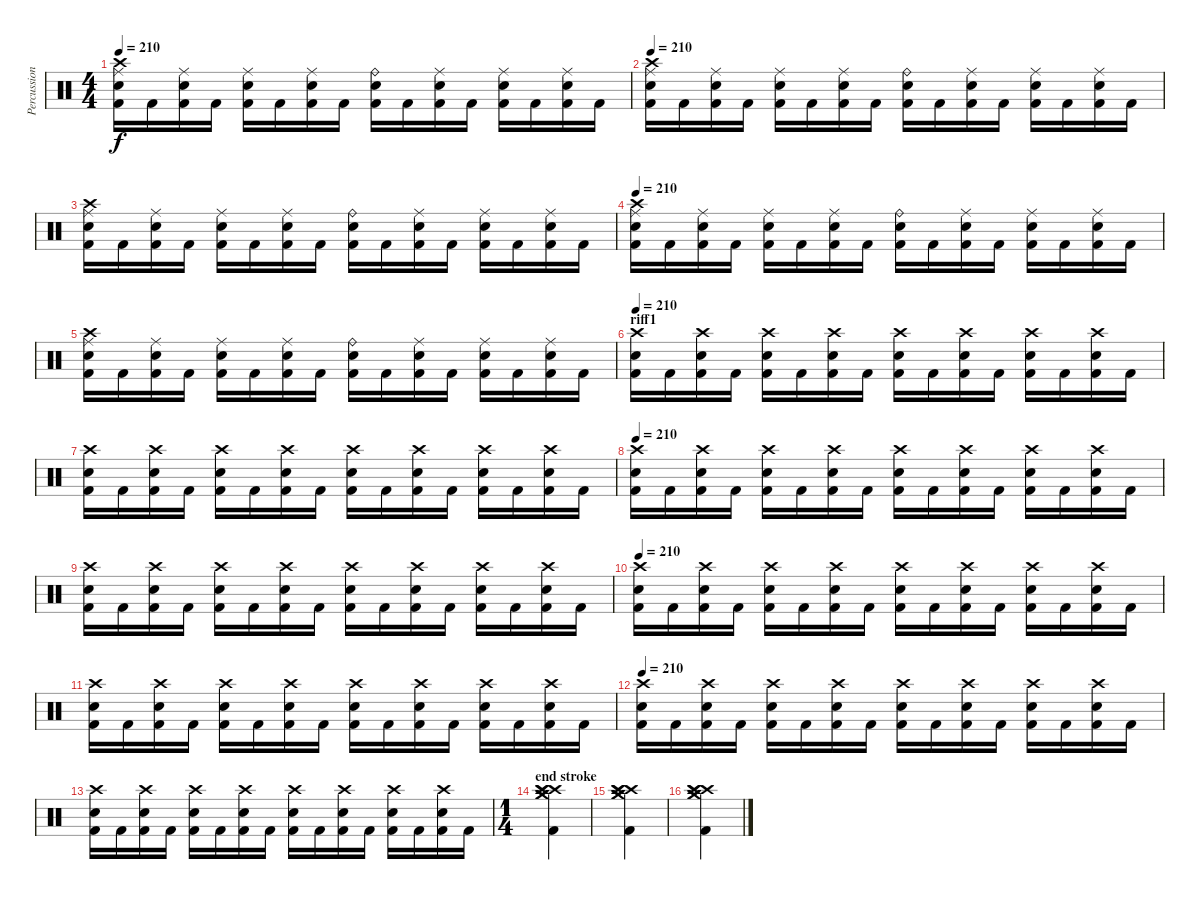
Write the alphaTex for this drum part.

\track ("Percussion" "Percussion") {instrument percussion}
\staff {score}
\articulation defaults
\ts (4 4)
\tempo 210
\clef neutral
\ks c
("Crash high (hit)" "Ride (middle)" "Snare (hit) 2" "Kick (hit) 2").16{dy f} "Kick (hit) 2".16 ("Ride (middle)" "Snare (hit) 2" "Kick (hit) 2").16 "Kick (hit) 2".16 ("Ride (middle)" "Snare (hit) 2" "Kick (hit) 2").16 "Kick (hit) 2".16 ("Ride (middle)" "Snare (hit) 2" "Kick (hit) 2").16 "Kick (hit) 2".16 ("Ride (bell)" "Snare (hit) 2" "Kick (hit) 2").16 "Kick (hit) 2".16 ("Ride (middle)" "Snare (hit) 2" "Kick (hit) 2").16 "Kick (hit) 2".16 ("Ride (middle)" "Snare (hit) 2" "Kick (hit) 2").16 "Kick (hit) 2".16 ("Ride (middle)" "Snare (hit) 2" "Kick (hit) 2").16 "Kick (hit) 2".16 |
\tempo 210
("Crash high (hit)" "Ride (middle)" "Snare (hit) 2" "Kick (hit) 2").16 "Kick (hit) 2".16 ("Ride (middle)" "Snare (hit) 2" "Kick (hit) 2").16 "Kick (hit) 2".16 ("Ride (middle)" "Snare (hit) 2" "Kick (hit) 2").16 "Kick (hit) 2".16 ("Ride (middle)" "Snare (hit) 2" "Kick (hit) 2").16 "Kick (hit) 2".16 ("Ride (bell)" "Snare (hit) 2" "Kick (hit) 2").16 "Kick (hit) 2".16 ("Ride (middle)" "Snare (hit) 2" "Kick (hit) 2").16 "Kick (hit) 2".16 ("Ride (middle)" "Snare (hit) 2" "Kick (hit) 2").16 "Kick (hit) 2".16 ("Ride (middle)" "Snare (hit) 2" "Kick (hit) 2").16 "Kick (hit) 2".16 |
("Crash high (hit)" "Ride (middle)" "Snare (hit) 2" "Kick (hit) 2").16 "Kick (hit) 2".16 ("Ride (middle)" "Snare (hit) 2" "Kick (hit) 2").16 "Kick (hit) 2".16 ("Ride (middle)" "Snare (hit) 2" "Kick (hit) 2").16 "Kick (hit) 2".16 ("Ride (middle)" "Snare (hit) 2" "Kick (hit) 2").16 "Kick (hit) 2".16 ("Ride (bell)" "Snare (hit) 2" "Kick (hit) 2").16 "Kick (hit) 2".16 ("Ride (middle)" "Snare (hit) 2" "Kick (hit) 2").16 "Kick (hit) 2".16 ("Ride (middle)" "Snare (hit) 2" "Kick (hit) 2").16 "Kick (hit) 2".16 ("Ride (middle)" "Snare (hit) 2" "Kick (hit) 2").16 "Kick (hit) 2".16 |
\tempo 210
("Crash high (hit)" "Ride (middle)" "Snare (hit) 2" "Kick (hit) 2").16 "Kick (hit) 2".16 ("Ride (middle)" "Snare (hit) 2" "Kick (hit) 2").16 "Kick (hit) 2".16 ("Ride (middle)" "Snare (hit) 2" "Kick (hit) 2").16 "Kick (hit) 2".16 ("Ride (middle)" "Snare (hit) 2" "Kick (hit) 2").16 "Kick (hit) 2".16 ("Ride (bell)" "Snare (hit) 2" "Kick (hit) 2").16 "Kick (hit) 2".16 ("Ride (middle)" "Snare (hit) 2" "Kick (hit) 2").16 "Kick (hit) 2".16 ("Ride (middle)" "Snare (hit) 2" "Kick (hit) 2").16 "Kick (hit) 2".16 ("Ride (middle)" "Snare (hit) 2" "Kick (hit) 2").16 "Kick (hit) 2".16 |
("Crash high (hit)" "Ride (middle)" "Snare (hit) 2" "Kick (hit) 2").16 "Kick (hit) 2".16 ("Ride (middle)" "Snare (hit) 2" "Kick (hit) 2").16 "Kick (hit) 2".16 ("Ride (middle)" "Snare (hit) 2" "Kick (hit) 2").16 "Kick (hit) 2".16 ("Ride (middle)" "Snare (hit) 2" "Kick (hit) 2").16 "Kick (hit) 2".16 ("Ride (bell)" "Snare (hit) 2" "Kick (hit) 2").16 "Kick (hit) 2".16 ("Ride (middle)" "Snare (hit) 2" "Kick (hit) 2").16 "Kick (hit) 2".16 ("Ride (middle)" "Snare (hit) 2" "Kick (hit) 2").16 "Kick (hit) 2".16 ("Ride (middle)" "Snare (hit) 2" "Kick (hit) 2").16 "Kick (hit) 2".16 |
\section ("" "riff1")
\tempo 210
("Crash high (hit)" "Snare (hit) 2" "Kick (hit) 2").16 "Kick (hit) 2".16 ("Crash high (hit)" "Snare (hit) 2" "Kick (hit) 2").16 "Kick (hit) 2".16 ("Crash high (hit)" "Snare (hit) 2" "Kick (hit) 2").16 "Kick (hit) 2".16 ("Crash high (hit)" "Snare (hit) 2" "Kick (hit) 2").16 "Kick (hit) 2".16 ("Crash high (hit)" "Snare (hit) 2" "Kick (hit) 2").16 "Kick (hit) 2".16 ("Crash high (hit)" "Snare (hit) 2" "Kick (hit) 2").16 "Kick (hit) 2".16 ("Crash high (hit)" "Snare (hit) 2" "Kick (hit) 2").16 "Kick (hit) 2".16 ("Crash high (hit)" "Snare (hit) 2" "Kick (hit) 2").16 "Kick (hit) 2".16 |
("Crash high (hit)" "Snare (hit) 2" "Kick (hit) 2").16 "Kick (hit) 2".16 ("Crash high (hit)" "Snare (hit) 2" "Kick (hit) 2").16 "Kick (hit) 2".16 ("Crash high (hit)" "Snare (hit) 2" "Kick (hit) 2").16 "Kick (hit) 2".16 ("Crash high (hit)" "Snare (hit) 2" "Kick (hit) 2").16 "Kick (hit) 2".16 ("Crash high (hit)" "Snare (hit) 2" "Kick (hit) 2").16 "Kick (hit) 2".16 ("Crash high (hit)" "Snare (hit) 2" "Kick (hit) 2").16 "Kick (hit) 2".16 ("Crash high (hit)" "Snare (hit) 2" "Kick (hit) 2").16 "Kick (hit) 2".16 ("Crash high (hit)" "Snare (hit) 2" "Kick (hit) 2").16 "Kick (hit) 2".16 |
\tempo 210
("Crash high (hit)" "Snare (hit) 2" "Kick (hit) 2").16 "Kick (hit) 2".16 ("Crash high (hit)" "Snare (hit) 2" "Kick (hit) 2").16 "Kick (hit) 2".16 ("Crash high (hit)" "Snare (hit) 2" "Kick (hit) 2").16 "Kick (hit) 2".16 ("Crash high (hit)" "Snare (hit) 2" "Kick (hit) 2").16 "Kick (hit) 2".16 ("Crash high (hit)" "Snare (hit) 2" "Kick (hit) 2").16 "Kick (hit) 2".16 ("Crash high (hit)" "Snare (hit) 2" "Kick (hit) 2").16 "Kick (hit) 2".16 ("Crash high (hit)" "Snare (hit) 2" "Kick (hit) 2").16 "Kick (hit) 2".16 ("Crash high (hit)" "Snare (hit) 2" "Kick (hit) 2").16 "Kick (hit) 2".16 |
("Crash high (hit)" "Snare (hit) 2" "Kick (hit) 2").16 "Kick (hit) 2".16 ("Crash high (hit)" "Snare (hit) 2" "Kick (hit) 2").16 "Kick (hit) 2".16 ("Crash high (hit)" "Snare (hit) 2" "Kick (hit) 2").16 "Kick (hit) 2".16 ("Crash high (hit)" "Snare (hit) 2" "Kick (hit) 2").16 "Kick (hit) 2".16 ("Crash high (hit)" "Snare (hit) 2" "Kick (hit) 2").16 "Kick (hit) 2".16 ("Crash high (hit)" "Snare (hit) 2" "Kick (hit) 2").16 "Kick (hit) 2".16 ("Crash high (hit)" "Snare (hit) 2" "Kick (hit) 2").16 "Kick (hit) 2".16 ("Crash high (hit)" "Snare (hit) 2" "Kick (hit) 2").16 "Kick (hit) 2".16 |
\tempo 210
("Crash high (hit)" "Snare (hit) 2" "Kick (hit) 2").16 "Kick (hit) 2".16 ("Crash high (hit)" "Snare (hit) 2" "Kick (hit) 2").16 "Kick (hit) 2".16 ("Crash high (hit)" "Snare (hit) 2" "Kick (hit) 2").16 "Kick (hit) 2".16 ("Crash high (hit)" "Snare (hit) 2" "Kick (hit) 2").16 "Kick (hit) 2".16 ("Crash high (hit)" "Snare (hit) 2" "Kick (hit) 2").16 "Kick (hit) 2".16 ("Crash high (hit)" "Snare (hit) 2" "Kick (hit) 2").16 "Kick (hit) 2".16 ("Crash high (hit)" "Snare (hit) 2" "Kick (hit) 2").16 "Kick (hit) 2".16 ("Crash high (hit)" "Snare (hit) 2" "Kick (hit) 2").16 "Kick (hit) 2".16 |
("Crash high (hit)" "Snare (hit) 2" "Kick (hit) 2").16 "Kick (hit) 2".16 ("Crash high (hit)" "Snare (hit) 2" "Kick (hit) 2").16 "Kick (hit) 2".16 ("Crash high (hit)" "Snare (hit) 2" "Kick (hit) 2").16 "Kick (hit) 2".16 ("Crash high (hit)" "Snare (hit) 2" "Kick (hit) 2").16 "Kick (hit) 2".16 ("Crash high (hit)" "Snare (hit) 2" "Kick (hit) 2").16 "Kick (hit) 2".16 ("Crash high (hit)" "Snare (hit) 2" "Kick (hit) 2").16 "Kick (hit) 2".16 ("Crash high (hit)" "Snare (hit) 2" "Kick (hit) 2").16 "Kick (hit) 2".16 ("Crash high (hit)" "Snare (hit) 2" "Kick (hit) 2").16 "Kick (hit) 2".16 |
\tempo 210
("Crash high (hit)" "Snare (hit) 2" "Kick (hit) 2").16 "Kick (hit) 2".16 ("Crash high (hit)" "Snare (hit) 2" "Kick (hit) 2").16 "Kick (hit) 2".16 ("Crash high (hit)" "Snare (hit) 2" "Kick (hit) 2").16 "Kick (hit) 2".16 ("Crash high (hit)" "Snare (hit) 2" "Kick (hit) 2").16 "Kick (hit) 2".16 ("Crash high (hit)" "Snare (hit) 2" "Kick (hit) 2").16 "Kick (hit) 2".16 ("Crash high (hit)" "Snare (hit) 2" "Kick (hit) 2").16 "Kick (hit) 2".16 ("Crash high (hit)" "Snare (hit) 2" "Kick (hit) 2").16 "Kick (hit) 2".16 ("Crash high (hit)" "Snare (hit) 2" "Kick (hit) 2").16 "Kick (hit) 2".16 |
("Crash high (hit)" "Snare (hit) 2" "Kick (hit) 2").16 "Kick (hit) 2".16 ("Crash high (hit)" "Snare (hit) 2" "Kick (hit) 2").16 "Kick (hit) 2".16 ("Crash high (hit)" "Snare (hit) 2" "Kick (hit) 2").16 "Kick (hit) 2".16 ("Crash high (hit)" "Snare (hit) 2" "Kick (hit) 2").16 "Kick (hit) 2".16 ("Crash high (hit)" "Snare (hit) 2" "Kick (hit) 2").16 "Kick (hit) 2".16 ("Crash high (hit)" "Snare (hit) 2" "Kick (hit) 2").16 "Kick (hit) 2".16 ("Crash high (hit)" "Snare (hit) 2" "Kick (hit) 2").16 "Kick (hit) 2".16 ("Crash high (hit)" "Snare (hit) 2" "Kick (hit) 2").16 "Kick (hit) 2".16 |
\ts (1 4)
\section ("" "end stroke")
("Crash high (hit)" "Crash medium (hit)" "Crash medium (hit)" "Crash high (hit)" "Crash high (hit)" "Kick (hit) 2").4 |
("Crash high (hit)" "Crash medium (hit)" "Crash medium (hit)" "Crash high (hit)" "Crash high (hit)" "Kick (hit) 2").4 |
("Crash high (hit)" "Crash medium (hit)" "Crash medium (hit)" "Crash high (hit)" "Crash high (hit)" "Kick (hit) 2").4
